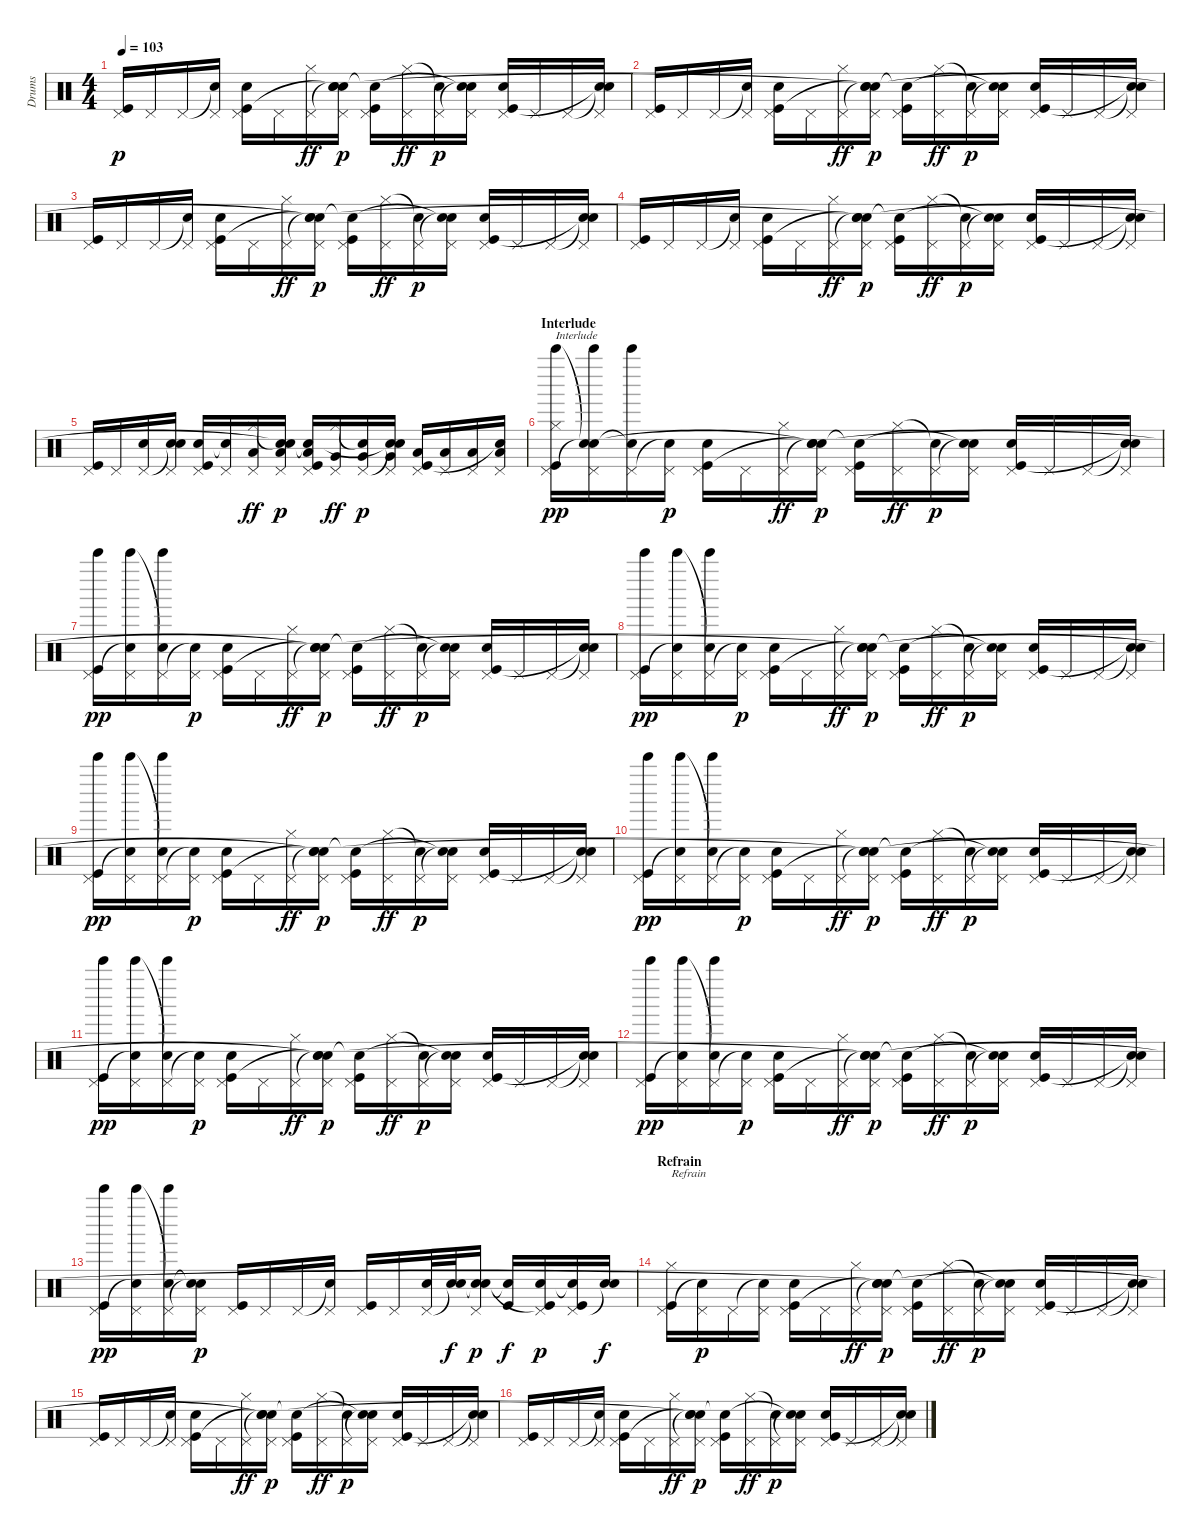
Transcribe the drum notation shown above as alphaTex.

\track ("Drums" "Drums") {instrument percussion}
\staff {score}
\articulation defaults
\ts (4 4)
\tempo 103
\clef neutral
\ks c
("Kick (hit)" "Pedal Hi-Hat (hit)").16{dy p} "Pedal Hi-Hat (hit)".16 "Pedal Hi-Hat (hit)".16 ("Electric Snare (hit)"{t} "Pedal Hi-Hat (hit)").16 ("Electric Snare (hit)" "Pedal Hi-Hat (hit)" "Kick (hit)").16 "Pedal Hi-Hat (hit)".16 ("Pedal Hi-Hat (hit)" "Hi-Hat (closed)").16{dy ff} ("Snare (hit)"{t} "Pedal Hi-Hat (hit)" "Snare (hit)"{t} "Snare (hit)"{t}).16{dy p} ("Kick (hit)" "Pedal Hi-Hat (hit)" "Snare (hit)"{t}).16 ("Pedal Hi-Hat (hit)" "Hi-Hat (closed)").16{dy ff} ("Pedal Hi-Hat (hit)" "Snare (hit)"{t}).16{dy p} ("Snare (hit)"{t} "Pedal Hi-Hat (hit)" "Snare (hit)"{t}).16 ("Electric Snare (hit)" "Pedal Hi-Hat (hit)" "Kick (hit)").16 "Pedal Hi-Hat (hit)".16 "Pedal Hi-Hat (hit)".16 ("Snare (hit)"{t} "Pedal Hi-Hat (hit)" "Snare (hit)"{t}).16 |
("Kick (hit)" "Pedal Hi-Hat (hit)").16 "Pedal Hi-Hat (hit)".16 "Pedal Hi-Hat (hit)".16 ("Electric Snare (hit)"{t} "Pedal Hi-Hat (hit)").16 ("Electric Snare (hit)" "Pedal Hi-Hat (hit)" "Kick (hit)").16 "Pedal Hi-Hat (hit)".16 ("Pedal Hi-Hat (hit)" "Hi-Hat (closed)").16{dy ff} ("Snare (hit)"{t} "Pedal Hi-Hat (hit)" "Snare (hit)"{t} "Snare (hit)"{t}).16{dy p} ("Kick (hit)" "Pedal Hi-Hat (hit)" "Snare (hit)"{t}).16 ("Pedal Hi-Hat (hit)" "Hi-Hat (closed)").16{dy ff} ("Pedal Hi-Hat (hit)" "Snare (hit)"{t}).16{dy p} ("Snare (hit)"{t} "Pedal Hi-Hat (hit)" "Snare (hit)"{t}).16 ("Electric Snare (hit)" "Pedal Hi-Hat (hit)" "Kick (hit)").16 "Pedal Hi-Hat (hit)".16 "Pedal Hi-Hat (hit)".16 ("Snare (hit)"{t} "Pedal Hi-Hat (hit)" "Snare (hit)"{t}).16 |
("Kick (hit)" "Pedal Hi-Hat (hit)").16 "Pedal Hi-Hat (hit)".16 "Pedal Hi-Hat (hit)".16 ("Electric Snare (hit)"{t} "Pedal Hi-Hat (hit)").16 ("Electric Snare (hit)" "Pedal Hi-Hat (hit)" "Kick (hit)").16 "Pedal Hi-Hat (hit)".16 ("Pedal Hi-Hat (hit)" "Hi-Hat (closed)").16{dy ff} ("Snare (hit)"{t} "Pedal Hi-Hat (hit)" "Snare (hit)"{t} "Snare (hit)"{t}).16{dy p} ("Kick (hit)" "Pedal Hi-Hat (hit)" "Snare (hit)"{t}).16 ("Pedal Hi-Hat (hit)" "Hi-Hat (closed)").16{dy ff} ("Pedal Hi-Hat (hit)" "Snare (hit)"{t}).16{dy p} ("Snare (hit)"{t} "Pedal Hi-Hat (hit)" "Snare (hit)"{t}).16 ("Electric Snare (hit)" "Pedal Hi-Hat (hit)" "Kick (hit)").16 "Pedal Hi-Hat (hit)".16 "Pedal Hi-Hat (hit)".16 ("Snare (hit)"{t} "Pedal Hi-Hat (hit)" "Snare (hit)"{t}).16 |
("Kick (hit)" "Pedal Hi-Hat (hit)").16 "Pedal Hi-Hat (hit)".16 "Pedal Hi-Hat (hit)".16 ("Electric Snare (hit)"{t} "Pedal Hi-Hat (hit)").16 ("Electric Snare (hit)" "Pedal Hi-Hat (hit)" "Kick (hit)").16 "Pedal Hi-Hat (hit)".16 ("Pedal Hi-Hat (hit)" "Hi-Hat (closed)").16{dy ff} ("Snare (hit)"{t} "Pedal Hi-Hat (hit)" "Snare (hit)"{t} "Snare (hit)"{t}).16{dy p} ("Kick (hit)" "Pedal Hi-Hat (hit)" "Snare (hit)"{t}).16 ("Pedal Hi-Hat (hit)" "Hi-Hat (closed)").16{dy ff} ("Pedal Hi-Hat (hit)" "Snare (hit)"{t}).16{dy p} ("Snare (hit)"{t} "Pedal Hi-Hat (hit)" "Snare (hit)"{t}).16 ("Electric Snare (hit)" "Pedal Hi-Hat (hit)" "Kick (hit)").16 "Pedal Hi-Hat (hit)".16 "Pedal Hi-Hat (hit)".16 ("Snare (hit)"{t} "Pedal Hi-Hat (hit)" "Snare (hit)"{t}).16 |
("Kick (hit)" "Pedal Hi-Hat (hit)").16 "Pedal Hi-Hat (hit)".16 ("Pedal Hi-Hat (hit)" "Electric Snare (hit)").16 ("Electric Snare (hit)"{t} "Pedal Hi-Hat (hit)" "Electric Snare (hit)").16 ("Electric Snare (hit)" "Pedal Hi-Hat (hit)" "Kick (hit)").16 ("Snare (hit)"{t} "Pedal Hi-Hat (hit)").16 ("Low Tom (hit)" "Pedal Hi-Hat (hit)" "Hi-Hat (closed)").16{dy ff} ("Low Tom (hit)" "Pedal Hi-Hat (hit)" "Snare (hit)"{t} "Snare (hit)"{t}).16{dy p} ("Kick (hit)" "Pedal Hi-Hat (hit)" "Low Tom (hit)" "Snare (hit)"{t}).16 ("Pedal Hi-Hat (hit)" "Very Low Tom (hit)" "Hi-Hat (closed)").16{dy ff} ("Pedal Hi-Hat (hit)" "Very Low Tom (hit)" "Snare (hit)"{t}).16{dy p} ("Snare (hit)"{t} "Pedal Hi-Hat (hit)" "Very Low Tom (hit)" "Snare (hit)"{t}).16 ("Low Floor Tom (hit)" "Pedal Hi-Hat (hit)" "Kick (hit)").16 ("Low Floor Tom (hit)" "Pedal Hi-Hat (hit)").16 ("Low Floor Tom (hit)" "Pedal Hi-Hat (hit)").16 ("Low Floor Tom (hit)" "Pedal Hi-Hat (hit)" "Snare (hit)"{t}).16 |
\section ("" "Interlude")
("Kick (hit)" "Pedal Hi-Hat (hit)" "Hi-Hat (closed)" "Bell Tree (hit)").16{txt "Interlude" dy pp} ("Pedal Hi-Hat (hit)" "Snare (hit)"{t} "Bell Tree (hit)" "Snare (hit)"{t}).16 ("Pedal Hi-Hat (hit)" "Snare (hit)"{t} "Bell Tree (hit)").16 ("Electric Snare (hit)"{t} "Pedal Hi-Hat (hit)").16{dy p} ("Electric Snare (hit)" "Pedal Hi-Hat (hit)" "Kick (hit)").16 "Pedal Hi-Hat (hit)".16 ("Pedal Hi-Hat (hit)" "Hi-Hat (closed)").16{dy ff} ("Snare (hit)"{t} "Pedal Hi-Hat (hit)" "Snare (hit)"{t} "Snare (hit)"{t}).16{dy p} ("Kick (hit)" "Pedal Hi-Hat (hit)" "Snare (hit)"{t}).16 ("Pedal Hi-Hat (hit)" "Hi-Hat (closed)").16{dy ff} ("Pedal Hi-Hat (hit)" "Snare (hit)"{t}).16{dy p} ("Snare (hit)"{t} "Pedal Hi-Hat (hit)" "Snare (hit)"{t}).16 ("Electric Snare (hit)" "Pedal Hi-Hat (hit)" "Kick (hit)").16 "Pedal Hi-Hat (hit)".16 "Pedal Hi-Hat (hit)".16 ("Snare (hit)"{t} "Pedal Hi-Hat (hit)" "Snare (hit)"{t}).16 |
("Kick (hit)" "Pedal Hi-Hat (hit)" "Bell Tree (hit)").16{dy pp} ("Pedal Hi-Hat (hit)" "Snare (hit)"{t} "Bell Tree (hit)").16 ("Pedal Hi-Hat (hit)" "Bell Tree (hit)" "Snare (hit)"{t}).16 ("Electric Snare (hit)"{t} "Pedal Hi-Hat (hit)").16{dy p} ("Electric Snare (hit)" "Pedal Hi-Hat (hit)" "Kick (hit)").16 "Pedal Hi-Hat (hit)".16 ("Pedal Hi-Hat (hit)" "Hi-Hat (closed)").16{dy ff} ("Snare (hit)"{t} "Pedal Hi-Hat (hit)" "Snare (hit)"{t} "Snare (hit)"{t}).16{dy p} ("Kick (hit)" "Pedal Hi-Hat (hit)" "Snare (hit)"{t}).16 ("Pedal Hi-Hat (hit)" "Hi-Hat (closed)").16{dy ff} ("Pedal Hi-Hat (hit)" "Snare (hit)"{t}).16{dy p} ("Snare (hit)"{t} "Pedal Hi-Hat (hit)" "Snare (hit)"{t}).16 ("Electric Snare (hit)" "Pedal Hi-Hat (hit)" "Kick (hit)").16 "Pedal Hi-Hat (hit)".16 "Pedal Hi-Hat (hit)".16 ("Snare (hit)"{t} "Pedal Hi-Hat (hit)" "Snare (hit)"{t}).16 |
("Kick (hit)" "Pedal Hi-Hat (hit)" "Bell Tree (hit)").16{dy pp} ("Pedal Hi-Hat (hit)" "Snare (hit)"{t} "Bell Tree (hit)").16 ("Pedal Hi-Hat (hit)" "Bell Tree (hit)" "Snare (hit)"{t}).16 ("Electric Snare (hit)"{t} "Pedal Hi-Hat (hit)").16{dy p} ("Electric Snare (hit)" "Pedal Hi-Hat (hit)" "Kick (hit)").16 "Pedal Hi-Hat (hit)".16 ("Pedal Hi-Hat (hit)" "Hi-Hat (closed)").16{dy ff} ("Snare (hit)"{t} "Pedal Hi-Hat (hit)" "Snare (hit)"{t} "Snare (hit)"{t}).16{dy p} ("Kick (hit)" "Pedal Hi-Hat (hit)" "Snare (hit)"{t}).16 ("Pedal Hi-Hat (hit)" "Hi-Hat (closed)").16{dy ff} ("Pedal Hi-Hat (hit)" "Snare (hit)"{t}).16{dy p} ("Snare (hit)"{t} "Pedal Hi-Hat (hit)" "Snare (hit)"{t}).16 ("Electric Snare (hit)" "Pedal Hi-Hat (hit)" "Kick (hit)").16 "Pedal Hi-Hat (hit)".16 "Pedal Hi-Hat (hit)".16 ("Snare (hit)"{t} "Pedal Hi-Hat (hit)" "Snare (hit)"{t}).16 |
("Kick (hit)" "Pedal Hi-Hat (hit)" "Bell Tree (hit)").16{dy pp} ("Pedal Hi-Hat (hit)" "Snare (hit)"{t} "Bell Tree (hit)").16 ("Pedal Hi-Hat (hit)" "Bell Tree (hit)" "Snare (hit)"{t}).16 ("Electric Snare (hit)"{t} "Pedal Hi-Hat (hit)").16{dy p} ("Electric Snare (hit)" "Pedal Hi-Hat (hit)" "Kick (hit)").16 "Pedal Hi-Hat (hit)".16 ("Pedal Hi-Hat (hit)" "Hi-Hat (closed)").16{dy ff} ("Snare (hit)"{t} "Pedal Hi-Hat (hit)" "Snare (hit)"{t} "Snare (hit)"{t}).16{dy p} ("Kick (hit)" "Pedal Hi-Hat (hit)" "Snare (hit)"{t}).16 ("Pedal Hi-Hat (hit)" "Hi-Hat (closed)").16{dy ff} ("Pedal Hi-Hat (hit)" "Snare (hit)"{t}).16{dy p} ("Snare (hit)"{t} "Pedal Hi-Hat (hit)" "Snare (hit)"{t}).16 ("Electric Snare (hit)" "Pedal Hi-Hat (hit)" "Kick (hit)").16 "Pedal Hi-Hat (hit)".16 "Pedal Hi-Hat (hit)".16 ("Snare (hit)"{t} "Pedal Hi-Hat (hit)" "Snare (hit)"{t}).16 |
("Kick (hit)" "Pedal Hi-Hat (hit)" "Bell Tree (hit)").16{dy pp} ("Pedal Hi-Hat (hit)" "Snare (hit)"{t} "Bell Tree (hit)").16 ("Pedal Hi-Hat (hit)" "Bell Tree (hit)" "Snare (hit)"{t}).16 ("Electric Snare (hit)"{t} "Pedal Hi-Hat (hit)").16{dy p} ("Electric Snare (hit)" "Pedal Hi-Hat (hit)" "Kick (hit)").16 "Pedal Hi-Hat (hit)".16 ("Pedal Hi-Hat (hit)" "Hi-Hat (closed)").16{dy ff} ("Snare (hit)"{t} "Pedal Hi-Hat (hit)" "Snare (hit)"{t} "Snare (hit)"{t}).16{dy p} ("Kick (hit)" "Pedal Hi-Hat (hit)" "Snare (hit)"{t}).16 ("Pedal Hi-Hat (hit)" "Hi-Hat (closed)").16{dy ff} ("Pedal Hi-Hat (hit)" "Snare (hit)"{t}).16{dy p} ("Snare (hit)"{t} "Pedal Hi-Hat (hit)" "Snare (hit)"{t}).16 ("Electric Snare (hit)" "Pedal Hi-Hat (hit)" "Kick (hit)").16 "Pedal Hi-Hat (hit)".16 "Pedal Hi-Hat (hit)".16 ("Snare (hit)"{t} "Pedal Hi-Hat (hit)" "Snare (hit)"{t}).16 |
("Kick (hit)" "Pedal Hi-Hat (hit)" "Bell Tree (hit)").16{dy pp} ("Pedal Hi-Hat (hit)" "Snare (hit)"{t} "Bell Tree (hit)").16 ("Pedal Hi-Hat (hit)" "Bell Tree (hit)" "Snare (hit)"{t}).16 ("Electric Snare (hit)"{t} "Pedal Hi-Hat (hit)").16{dy p} ("Electric Snare (hit)" "Pedal Hi-Hat (hit)" "Kick (hit)").16 "Pedal Hi-Hat (hit)".16 ("Pedal Hi-Hat (hit)" "Hi-Hat (closed)").16{dy ff} ("Snare (hit)"{t} "Pedal Hi-Hat (hit)" "Snare (hit)"{t} "Snare (hit)"{t}).16{dy p} ("Kick (hit)" "Pedal Hi-Hat (hit)" "Snare (hit)"{t}).16 ("Pedal Hi-Hat (hit)" "Hi-Hat (closed)").16{dy ff} ("Pedal Hi-Hat (hit)" "Snare (hit)"{t}).16{dy p} ("Snare (hit)"{t} "Pedal Hi-Hat (hit)" "Snare (hit)"{t}).16 ("Electric Snare (hit)" "Pedal Hi-Hat (hit)" "Kick (hit)").16 "Pedal Hi-Hat (hit)".16 "Pedal Hi-Hat (hit)".16 ("Snare (hit)"{t} "Pedal Hi-Hat (hit)" "Snare (hit)"{t}).16 |
("Kick (hit)" "Pedal Hi-Hat (hit)" "Bell Tree (hit)").16{dy pp} ("Pedal Hi-Hat (hit)" "Snare (hit)"{t} "Bell Tree (hit)").16 ("Pedal Hi-Hat (hit)" "Bell Tree (hit)" "Snare (hit)"{t}).16 ("Electric Snare (hit)"{t} "Pedal Hi-Hat (hit)").16{dy p} ("Electric Snare (hit)" "Pedal Hi-Hat (hit)" "Kick (hit)").16 "Pedal Hi-Hat (hit)".16 ("Pedal Hi-Hat (hit)" "Hi-Hat (closed)").16{dy ff} ("Snare (hit)"{t} "Pedal Hi-Hat (hit)" "Snare (hit)"{t} "Snare (hit)"{t}).16{dy p} ("Kick (hit)" "Pedal Hi-Hat (hit)" "Snare (hit)"{t}).16 ("Pedal Hi-Hat (hit)" "Hi-Hat (closed)").16{dy ff} ("Pedal Hi-Hat (hit)" "Snare (hit)"{t}).16{dy p} ("Snare (hit)"{t} "Pedal Hi-Hat (hit)" "Snare (hit)"{t}).16 ("Electric Snare (hit)" "Pedal Hi-Hat (hit)" "Kick (hit)").16 "Pedal Hi-Hat (hit)".16 "Pedal Hi-Hat (hit)".16 ("Snare (hit)"{t} "Pedal Hi-Hat (hit)" "Snare (hit)"{t}).16 |
("Kick (hit)" "Pedal Hi-Hat (hit)" "Bell Tree (hit)").16{dy pp} ("Pedal Hi-Hat (hit)" "Snare (hit)"{t} "Bell Tree (hit)").16 ("Pedal Hi-Hat (hit)" "Bell Tree (hit)" "Snare (hit)"{t}).16 ("Electric Snare (hit)"{t} "Pedal Hi-Hat (hit)" "Snare (hit)"{t}).16{dy p} ("Kick (hit)" "Pedal Hi-Hat (hit)").16 "Pedal Hi-Hat (hit)".16 "Pedal Hi-Hat (hit)".16 ("Snare (hit)"{t} "Pedal Hi-Hat (hit)").16 ("Kick (hit)" "Pedal Hi-Hat (hit)").16 "Pedal Hi-Hat (hit)".16 ("Pedal Hi-Hat (hit)" "Electric Snare (hit)").32 ("Snare (hit)"{t} "Electric Snare (hit)").32{dy f} ("Snare (hit)"{t} "Pedal Hi-Hat (hit)" "Electric Snare (hit)").16{dy p} ("Snare (hit)"{t} "Kick (hit)").16{dy f} ("Electric Snare (hit)" "Pedal Hi-Hat (hit)" "Kick (hit)"{t}).16{dy p} ("Electric Snare (hit)"{t} "Pedal Hi-Hat (hit)" "Kick (hit)").16 ("Electric Snare (hit)" "Snare (hit)"{t}).16{dy f} |
\section ("" "Refrain")
("Kick (hit)" "Pedal Hi-Hat (hit)" "Hi-Hat (closed)").16{txt "Refrain"} ("Pedal Hi-Hat (hit)" "Snare (hit)"{t}).16{dy p} "Pedal Hi-Hat (hit)".16 ("Electric Snare (hit)"{t} "Pedal Hi-Hat (hit)").16 ("Electric Snare (hit)" "Pedal Hi-Hat (hit)" "Kick (hit)").16 "Pedal Hi-Hat (hit)".16 ("Pedal Hi-Hat (hit)" "Hi-Hat (closed)").16{dy ff} ("Snare (hit)"{t} "Pedal Hi-Hat (hit)" "Snare (hit)"{t} "Snare (hit)"{t}).16{dy p} ("Kick (hit)" "Pedal Hi-Hat (hit)" "Snare (hit)"{t}).16 ("Pedal Hi-Hat (hit)" "Hi-Hat (closed)").16{dy ff} ("Pedal Hi-Hat (hit)" "Snare (hit)"{t}).16{dy p} ("Snare (hit)"{t} "Pedal Hi-Hat (hit)" "Snare (hit)"{t}).16 ("Electric Snare (hit)" "Pedal Hi-Hat (hit)" "Kick (hit)").16 "Pedal Hi-Hat (hit)".16 "Pedal Hi-Hat (hit)".16 ("Snare (hit)"{t} "Pedal Hi-Hat (hit)" "Snare (hit)"{t}).16 |
("Kick (hit)" "Pedal Hi-Hat (hit)").16 "Pedal Hi-Hat (hit)".16 "Pedal Hi-Hat (hit)".16 ("Electric Snare (hit)"{t} "Pedal Hi-Hat (hit)").16 ("Electric Snare (hit)" "Pedal Hi-Hat (hit)" "Kick (hit)").16 "Pedal Hi-Hat (hit)".16 ("Pedal Hi-Hat (hit)" "Hi-Hat (closed)").16{dy ff} ("Snare (hit)"{t} "Pedal Hi-Hat (hit)" "Snare (hit)"{t} "Snare (hit)"{t}).16{dy p} ("Kick (hit)" "Pedal Hi-Hat (hit)" "Snare (hit)"{t}).16 ("Pedal Hi-Hat (hit)" "Hi-Hat (closed)").16{dy ff} ("Pedal Hi-Hat (hit)" "Snare (hit)"{t}).16{dy p} ("Snare (hit)"{t} "Pedal Hi-Hat (hit)" "Snare (hit)"{t}).16 ("Electric Snare (hit)" "Pedal Hi-Hat (hit)" "Kick (hit)").16 "Pedal Hi-Hat (hit)".16 "Pedal Hi-Hat (hit)".16 ("Snare (hit)"{t} "Pedal Hi-Hat (hit)" "Snare (hit)"{t}).16 |
("Kick (hit)" "Pedal Hi-Hat (hit)").16 "Pedal Hi-Hat (hit)".16 "Pedal Hi-Hat (hit)".16 ("Electric Snare (hit)"{t} "Pedal Hi-Hat (hit)").16 ("Electric Snare (hit)" "Pedal Hi-Hat (hit)" "Kick (hit)").16 "Pedal Hi-Hat (hit)".16 ("Pedal Hi-Hat (hit)" "Hi-Hat (closed)").16{dy ff} ("Snare (hit)"{t} "Pedal Hi-Hat (hit)" "Snare (hit)"{t} "Snare (hit)"{t}).16{dy p} ("Kick (hit)" "Pedal Hi-Hat (hit)" "Snare (hit)"{t}).16 ("Pedal Hi-Hat (hit)" "Hi-Hat (closed)").16{dy ff} ("Pedal Hi-Hat (hit)" "Snare (hit)"{t}).16{dy p} ("Snare (hit)"{t} "Pedal Hi-Hat (hit)" "Snare (hit)"{t}).16 ("Electric Snare (hit)" "Pedal Hi-Hat (hit)" "Kick (hit)").16 "Pedal Hi-Hat (hit)".16 "Pedal Hi-Hat (hit)".16 ("Snare (hit)"{t} "Pedal Hi-Hat (hit)" "Snare (hit)"{t}).16
